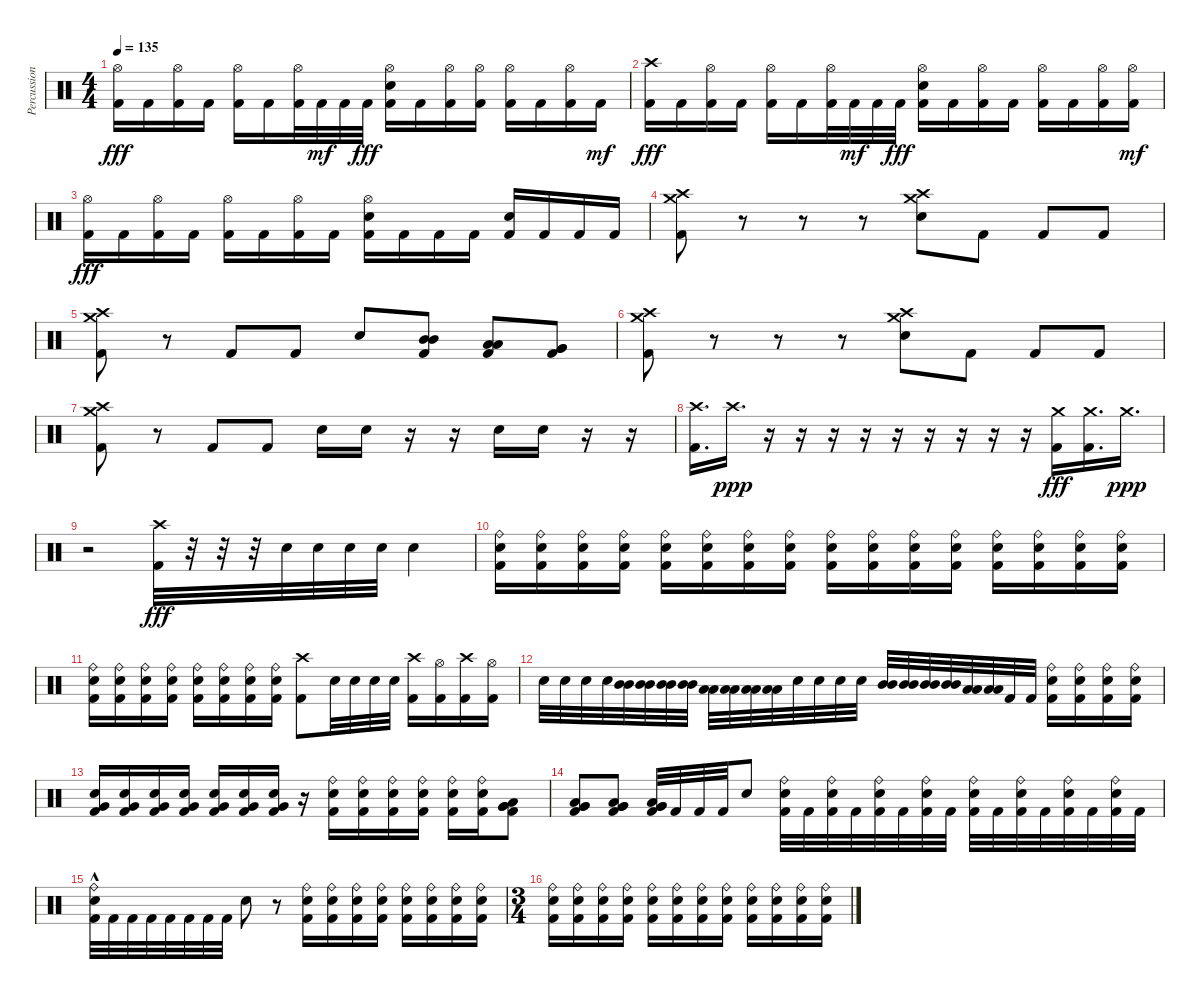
\track ("Percussion" "Percussion") {instrument percussion bank 16}
\staff {score}
\articulation defaults
\ts (4 4)
\tempo 135
\clef neutral
\ks c
("Hi-Hat (open)" "Kick (hit) 2").16{dy fff} "Kick (hit) 2".16 ("Hi-Hat (open)" "Kick (hit) 2").16 "Kick (hit) 2".16 ("Hi-Hat (open)" "Kick (hit) 2").16 "Kick (hit) 2".16 ("Hi-Hat (open)" "Kick (hit) 2").32 "Kick (hit) 2".32{dy mf} "Kick (hit) 2".32 "Kick (hit) 2".32{dy fff} ("Hi-Hat (open)" "Electric Snare (hit)" "Kick (hit) 2").16 "Kick (hit) 2".16 ("Hi-Hat (open)" "Kick (hit) 2").16 ("Hi-Hat (open)" "Kick (hit) 2").16 ("Hi-Hat (open)" "Kick (hit) 2").16 "Kick (hit) 2".16 ("Hi-Hat (open)" "Kick (hit) 2").16 "Kick (hit) 2".16{dy mf} |
("Crash high (hit)" "Kick (hit) 2").16{dy fff} "Kick (hit) 2".16 ("Hi-Hat (open)" "Kick (hit) 2").16 "Kick (hit) 2".16 ("Hi-Hat (open)" "Kick (hit) 2").16 "Kick (hit) 2".16 ("Hi-Hat (open)" "Kick (hit) 2").32 "Kick (hit) 2".32{dy mf} "Kick (hit) 2".32 "Kick (hit) 2".32{dy fff} ("Hi-Hat (open)" "Electric Snare (hit)" "Kick (hit) 2").16 "Kick (hit) 2".16 ("Hi-Hat (open)" "Kick (hit) 2").16 "Kick (hit) 2".16 ("Hi-Hat (open)" "Kick (hit) 2").16 "Kick (hit) 2".16 ("Hi-Hat (open)" "Kick (hit) 2").16 ("Hi-Hat (open)" "Kick (hit) 2").16{dy mf} |
("Hi-Hat (open)" "Kick (hit) 2").16{dy fff} "Kick (hit) 2".16 ("Hi-Hat (open)" "Kick (hit) 2").16 "Kick (hit) 2".16 ("Hi-Hat (open)" "Kick (hit) 2").16 "Kick (hit) 2".16 ("Hi-Hat (open)" "Kick (hit) 2").16 "Kick (hit) 2".16 ("Hi-Hat (open)" "Electric Snare (hit)" "Kick (hit) 2").16 "Kick (hit) 2".16 "Kick (hit) 2".16 "Kick (hit) 2".16 ("Electric Snare (hit)" "Kick (hit) 2").16 "Kick (hit) 2".16 "Kick (hit) 2".16 "Kick (hit) 2".16 |
("Crash high (hit)" "Crash medium (hit)" "Kick (hit) 2").8 r.8 r.8 r.8 ("Crash high (hit)" "Crash medium (hit)" "Electric Snare (hit)").8 "Kick (hit) 2".8 "Kick (hit) 2".8 "Kick (hit) 2".8 |
("Crash high (hit)" "Crash medium (hit)" "Kick (hit) 2").8 r.8 "Kick (hit) 2".8 "Kick (hit) 2".8 "Electric Snare (hit)".8 ("Mid Tom (hit)" "Mid Tom (hit)" "Kick (hit) 2").8 ("Low Tom (hit)" "Low Tom (hit)" "Kick (hit) 2").8 ("Very Low Tom (hit)" "Very Low Tom (hit)" "Kick (hit) 2").8 |
("Crash high (hit)" "Crash medium (hit)" "Kick (hit) 2").8 r.8 r.8 r.8 ("Crash high (hit)" "Crash medium (hit)" "Electric Snare (hit)").8 "Kick (hit) 2".8 "Kick (hit) 2".8 "Kick (hit) 2".8 |
("Crash high (hit)" "Crash medium (hit)" "Kick (hit) 2").8 r.8 "Kick (hit) 2".8 "Kick (hit) 2".8 "Electric Snare (hit)".16 "Electric Snare (hit)".16 r.16 r.16 "Electric Snare (hit)".16 "Electric Snare (hit)".16 r.16 r.16 |
("Crash high (hit)" "Kick (hit) 2").16{d} "Crash high (hit)".16{d dy ppp} r.16 r.16 r.16 r.16 r.16 r.16 r.16 r.16 r.16 ("Crash medium (hit)" "Kick (hit) 2").16{dy fff} ("Crash medium (hit)" "Kick (hit) 2").16{d} "Crash medium (hit)".16{d dy ppp} |
r.2 ("Crash high (hit)" "Kick (hit) 2").32{dy fff} r.32 r.32 r.32 "Electric Snare (hit)".32 "Electric Snare (hit)".32 "Electric Snare (hit)".32 "Electric Snare (hit)".32 "Electric Snare (hit)".4 |
("Ride (bell)" "Electric Snare (hit)" "Kick (hit) 2").16 ("Ride (bell)" "Electric Snare (hit)" "Kick (hit) 2").16 ("Ride (bell)" "Electric Snare (hit)" "Kick (hit) 2").16 ("Ride (bell)" "Electric Snare (hit)" "Kick (hit) 2").16 ("Ride (bell)" "Electric Snare (hit)" "Kick (hit) 2").16 ("Ride (bell)" "Electric Snare (hit)" "Kick (hit) 2").16 ("Ride (bell)" "Electric Snare (hit)" "Kick (hit) 2").16 ("Ride (bell)" "Electric Snare (hit)" "Kick (hit) 2").16 ("Ride (bell)" "Electric Snare (hit)" "Kick (hit) 2").16 ("Ride (bell)" "Electric Snare (hit)" "Kick (hit) 2").16 ("Ride (bell)" "Electric Snare (hit)" "Kick (hit) 2").16 ("Ride (bell)" "Electric Snare (hit)" "Kick (hit) 2").16 ("Ride (bell)" "Electric Snare (hit)" "Kick (hit) 2").16 ("Ride (bell)" "Electric Snare (hit)" "Kick (hit) 2").16 ("Ride (bell)" "Electric Snare (hit)" "Kick (hit) 2").16 ("Ride (bell)" "Electric Snare (hit)" "Kick (hit) 2").16 |
("Ride (bell)" "Electric Snare (hit)" "Kick (hit) 2").16 ("Ride (bell)" "Electric Snare (hit)" "Kick (hit) 2").16 ("Ride (bell)" "Electric Snare (hit)" "Kick (hit) 2").16 ("Ride (bell)" "Electric Snare (hit)" "Kick (hit) 2").16 ("Ride (bell)" "Electric Snare (hit)" "Kick (hit) 2").16 ("Ride (bell)" "Electric Snare (hit)" "Kick (hit) 2").16 ("Ride (bell)" "Electric Snare (hit)" "Kick (hit) 2").16 ("Ride (bell)" "Electric Snare (hit)" "Kick (hit) 2").16 ("Crash high (hit)" "Kick (hit) 2").8 "Electric Snare (hit)".32 "Electric Snare (hit)".32 "Electric Snare (hit)".32 "Electric Snare (hit)".32 ("Crash high (hit)" "Kick (hit) 2").16 ("Hi-Hat (open)" "Kick (hit) 2").16 ("Crash high (hit)" "Kick (hit) 2").16 ("Hi-Hat (open)" "Kick (hit) 2").16 |
"Electric Snare (hit)".32 "Electric Snare (hit)".32 "Electric Snare (hit)".32 "Electric Snare (hit)".32 ("Mid Tom (hit)" "Mid Tom (hit)").32 ("Mid Tom (hit)" "Mid Tom (hit)").32 ("Mid Tom (hit)" "Mid Tom (hit)").32 ("Mid Tom (hit)" "Mid Tom (hit)").32 ("Low Tom (hit)" "Low Tom (hit)").32 ("Low Tom (hit)" "Low Tom (hit)").32 ("Low Tom (hit)" "Low Tom (hit)").32 ("Low Tom (hit)" "Low Tom (hit)").32 "Electric Snare (hit)".32 "Electric Snare (hit)".32 "Electric Snare (hit)".32 "Electric Snare (hit)".32 ("Mid Tom (hit)" "Mid Tom (hit)").32 ("Mid Tom (hit)" "Mid Tom (hit)").32 ("Mid Tom (hit)" "Mid Tom (hit)").32 ("Mid Tom (hit)" "Mid Tom (hit)").32 ("Low Tom (hit)" "Low Tom (hit)").32 ("Low Tom (hit)" "Low Tom (hit)").32 "Kick (hit) 2".32 "Kick (hit) 2".32 ("Ride (bell)" "Electric Snare (hit)" "Kick (hit) 2").16 ("Ride (bell)" "Electric Snare (hit)" "Kick (hit) 2").16 ("Ride (bell)" "Electric Snare (hit)" "Kick (hit) 2").16 ("Ride (bell)" "Electric Snare (hit)" "Kick (hit) 2").16 |
("Electric Snare (hit)" "Very Low Tom (hit)" "Kick (hit) 2").16 ("Electric Snare (hit)" "Very Low Tom (hit)" "Kick (hit) 2").16 ("Electric Snare (hit)" "Very Low Tom (hit)" "Kick (hit) 2").16 ("Electric Snare (hit)" "Very Low Tom (hit)" "Kick (hit) 2").16 ("Electric Snare (hit)" "Very Low Tom (hit)" "Kick (hit) 2").16 ("Electric Snare (hit)" "Very Low Tom (hit)" "Kick (hit) 2").16 ("Electric Snare (hit)" "Very Low Tom (hit)" "Kick (hit) 2").16 r.16 ("Ride (bell)" "Electric Snare (hit)" "Kick (hit) 2").16 ("Ride (bell)" "Electric Snare (hit)" "Kick (hit) 2").16 ("Ride (bell)" "Electric Snare (hit)" "Kick (hit) 2").16 ("Ride (bell)" "Electric Snare (hit)" "Kick (hit) 2").16 ("Ride (bell)" "Electric Snare (hit)" "Kick (hit) 2").16 ("Ride (bell)" "Electric Snare (hit)" "Kick (hit) 2").16 ("Low Tom (hit)" "Very Low Tom (hit)" "Very Low Tom (hit)" "Kick (hit) 2").8 |
("Low Tom (hit)" "Very Low Tom (hit)" "Very Low Tom (hit)" "Kick (hit) 2").8 ("Low Tom (hit)" "Very Low Tom (hit)" "Very Low Tom (hit)" "Kick (hit) 2").8 ("Low Tom (hit)" "Very Low Tom (hit)" "Very Low Tom (hit)" "Kick (hit) 2").32 "Kick (hit) 2".32 "Kick (hit) 2".32 "Kick (hit) 2".32 "Electric Snare (hit)".8 ("Ride (bell)" "Electric Snare (hit)" "Kick (hit) 2").32 "Kick (hit) 2".32 ("Ride (bell)" "Electric Snare (hit)" "Kick (hit) 2").32 "Kick (hit) 2".32 ("Ride (bell)" "Electric Snare (hit)" "Kick (hit) 2").32 "Kick (hit) 2".32 ("Ride (bell)" "Electric Snare (hit)" "Kick (hit) 2").32 "Kick (hit) 2".32 ("Ride (bell)" "Electric Snare (hit)" "Kick (hit) 2").32 "Kick (hit) 2".32 ("Ride (bell)" "Electric Snare (hit)" "Kick (hit) 2").32 "Kick (hit) 2".32 ("Ride (bell)" "Electric Snare (hit)" "Kick (hit) 2").32 "Kick (hit) 2".32 ("Ride (bell)" "Electric Snare (hit)" "Kick (hit) 2").32 "Kick (hit) 2".32 |
("Ride (bell)"{hac} "Electric Snare (hit)" "Kick (hit) 2").32 "Kick (hit) 2".32 "Kick (hit) 2".32 "Kick (hit) 2".32 "Kick (hit) 2".32 "Kick (hit) 2".32 "Kick (hit) 2".32 "Kick (hit) 2".32 "Electric Snare (hit)".8 r.8 ("Ride (bell)" "Electric Snare (hit)" "Kick (hit) 2").16 ("Ride (bell)" "Electric Snare (hit)" "Kick (hit) 2").16 ("Ride (bell)" "Electric Snare (hit)" "Kick (hit) 2").16 ("Ride (bell)" "Electric Snare (hit)" "Kick (hit) 2").16 ("Ride (bell)" "Electric Snare (hit)" "Kick (hit) 2").16 ("Ride (bell)" "Electric Snare (hit)" "Kick (hit) 2").16 ("Ride (bell)" "Electric Snare (hit)" "Kick (hit) 2").16 ("Ride (bell)" "Electric Snare (hit)" "Kick (hit) 2").16 |
\ts (3 4)
("Ride (bell)" "Electric Snare (hit)" "Kick (hit) 2").16 ("Ride (bell)" "Electric Snare (hit)" "Kick (hit) 2").16 ("Ride (bell)" "Electric Snare (hit)" "Kick (hit) 2").16 ("Ride (bell)" "Electric Snare (hit)" "Kick (hit) 2").16 ("Ride (bell)" "Electric Snare (hit)" "Kick (hit) 2").16 ("Ride (bell)" "Electric Snare (hit)" "Kick (hit) 2").16 ("Ride (bell)" "Electric Snare (hit)" "Kick (hit) 2").16 ("Ride (bell)" "Electric Snare (hit)" "Kick (hit) 2").16 ("Ride (bell)" "Electric Snare (hit)" "Kick (hit) 2").16 ("Ride (bell)" "Electric Snare (hit)" "Kick (hit) 2").16 ("Ride (bell)" "Electric Snare (hit)" "Kick (hit) 2").16 ("Ride (bell)" "Electric Snare (hit)" "Kick (hit) 2").16
